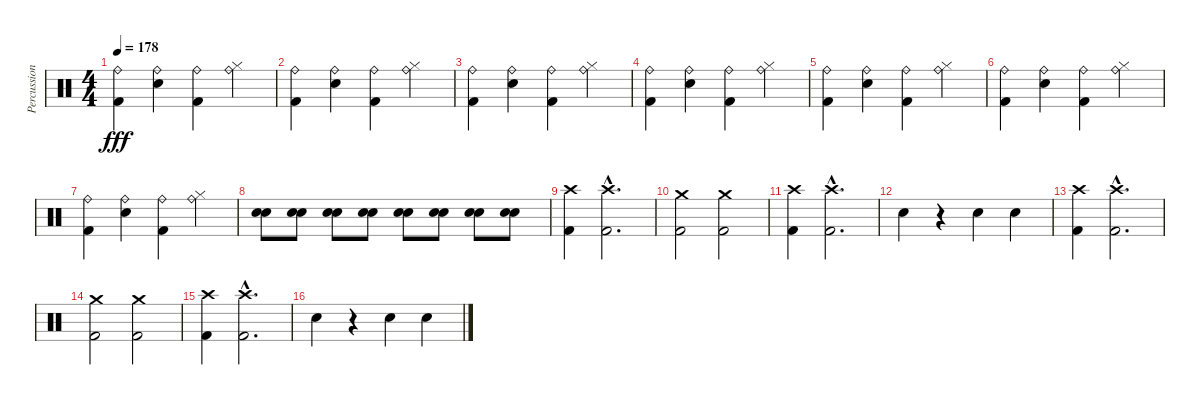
\track ("Percussion" "Percussion") {instrument percussion}
\staff {score}
\articulation defaults
\ts (4 4)
\tempo 178
\clef neutral
\ks c
("Ride (bell)" "Kick (hit) 2").4{dy fff} ("Ride (bell)" "Electric Snare (hit)").4 ("Ride (bell)" "Kick (hit) 2").4 ("Ride (bell)" "Hi-Hat (closed)").4 |
("Ride (bell)" "Kick (hit) 2").4 ("Ride (bell)" "Electric Snare (hit)").4 ("Ride (bell)" "Kick (hit) 2").4 ("Ride (bell)" "Hi-Hat (closed)").4 |
("Ride (bell)" "Kick (hit) 2").4 ("Ride (bell)" "Electric Snare (hit)").4 ("Ride (bell)" "Kick (hit) 2").4 ("Ride (bell)" "Hi-Hat (closed)").4 |
("Ride (bell)" "Kick (hit) 2").4 ("Ride (bell)" "Electric Snare (hit)").4 ("Ride (bell)" "Kick (hit) 2").4 ("Ride (bell)" "Hi-Hat (closed)").4 |
("Ride (bell)" "Kick (hit) 2").4 ("Ride (bell)" "Electric Snare (hit)").4 ("Ride (bell)" "Kick (hit) 2").4 ("Ride (bell)" "Hi-Hat (closed)").4 |
("Ride (bell)" "Kick (hit) 2").4 ("Ride (bell)" "Electric Snare (hit)").4 ("Ride (bell)" "Kick (hit) 2").4 ("Ride (bell)" "Hi-Hat (closed)").4 |
("Ride (bell)" "Kick (hit) 2").4 ("Ride (bell)" "Electric Snare (hit)").4 ("Ride (bell)" "Kick (hit) 2").4 ("Ride (bell)" "Hi-Hat (closed)").4 |
("Electric Snare (hit)" "Snare (hit) 2").8 ("Electric Snare (hit)" "Snare (hit) 2").8 ("Electric Snare (hit)" "Snare (hit) 2").8 ("Electric Snare (hit)" "Snare (hit) 2").8 ("Electric Snare (hit)" "Snare (hit) 2").8 ("Electric Snare (hit)" "Snare (hit) 2").8 ("Electric Snare (hit)" "Snare (hit) 2").8 ("Electric Snare (hit)" "Snare (hit) 2").8 |
("Crash high (hit)" "Kick (hit) 2").4 ("Crash high (hit)"{hac} "Kick (hit) 2"{hac}).2{d} |
("Crash medium (hit)" "Kick (hit) 2").2 ("Crash medium (hit)" "Kick (hit) 2").2 |
("Crash high (hit)" "Kick (hit) 2").4 ("Crash high (hit)"{hac} "Kick (hit) 2"{hac}).2{d} |
"Electric Snare (hit)".4 r.4 "Electric Snare (hit)".4 "Electric Snare (hit)".4 |
("Crash high (hit)" "Kick (hit) 2").4 ("Crash high (hit)"{hac} "Kick (hit) 2"{hac}).2{d} |
("Crash medium (hit)" "Kick (hit) 2").2 ("Crash medium (hit)" "Kick (hit) 2").2 |
("Crash high (hit)" "Kick (hit) 2").4 ("Crash high (hit)"{hac} "Kick (hit) 2"{hac}).2{d} |
"Electric Snare (hit)".4 r.4 "Electric Snare (hit)".4 "Electric Snare (hit)".4
